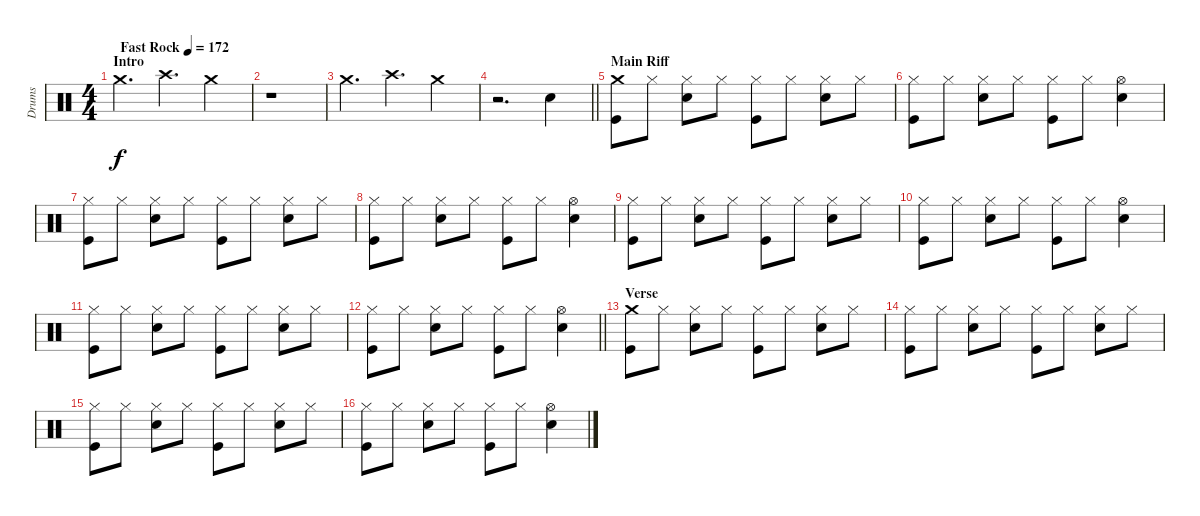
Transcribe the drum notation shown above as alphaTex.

\track ("Drums" "Drums") {instrument percussion}
\staff {score}
\articulation defaults
\ts (4 4)
\section ("" "Intro")
\tempo (172 "Fast Rock")
\clef neutral
\ks c "Crash medium (hit)".4{d dy f} "Crash high (hit)".4{d} "Crash medium (hit)".4
|
r.1 |
"Crash medium (hit)".4{d} "Crash high (hit)".4{d} "Crash medium (hit)".4 |
\barLineRight lightlight
r.2{d} "Snare (hit) 2".4 |
\section ("" "Main Riff")
("Crash medium (hit)" "Kick (hit)").8 "Hi-Hat (closed)".8 ("Hi-Hat (closed)" "Snare (hit) 2").8 "Hi-Hat (closed)".8 ("Hi-Hat (closed)" "Kick (hit)").8 "Hi-Hat (closed)".8 ("Hi-Hat (closed)" "Snare (hit) 2").8 "Hi-Hat (closed)".8 |
("Hi-Hat (closed)" "Kick (hit)").8 "Hi-Hat (closed)".8 ("Hi-Hat (closed)" "Snare (hit) 2").8 "Hi-Hat (closed)".8 ("Hi-Hat (closed)" "Kick (hit)").8 "Hi-Hat (closed)".8 ("Hi-Hat (open)" "Snare (hit) 2").4 |
("Hi-Hat (closed)" "Kick (hit)").8 "Hi-Hat (closed)".8 ("Hi-Hat (closed)" "Snare (hit) 2").8 "Hi-Hat (closed)".8 ("Hi-Hat (closed)" "Kick (hit)").8 "Hi-Hat (closed)".8 ("Hi-Hat (closed)" "Snare (hit) 2").8 "Hi-Hat (closed)".8 |
("Hi-Hat (closed)" "Kick (hit)").8 "Hi-Hat (closed)".8 ("Hi-Hat (closed)" "Snare (hit) 2").8 "Hi-Hat (closed)".8 ("Hi-Hat (closed)" "Kick (hit)").8 "Hi-Hat (closed)".8 ("Hi-Hat (open)" "Snare (hit) 2").4 |
("Hi-Hat (closed)" "Kick (hit)").8 "Hi-Hat (closed)".8 ("Hi-Hat (closed)" "Snare (hit) 2").8 "Hi-Hat (closed)".8 ("Hi-Hat (closed)" "Kick (hit)").8 "Hi-Hat (closed)".8 ("Hi-Hat (closed)" "Snare (hit) 2").8 "Hi-Hat (closed)".8 |
("Hi-Hat (closed)" "Kick (hit)").8 "Hi-Hat (closed)".8 ("Hi-Hat (closed)" "Snare (hit) 2").8 "Hi-Hat (closed)".8 ("Hi-Hat (closed)" "Kick (hit)").8 "Hi-Hat (closed)".8 ("Hi-Hat (open)" "Snare (hit) 2").4 |
("Hi-Hat (closed)" "Kick (hit)").8 "Hi-Hat (closed)".8 ("Hi-Hat (closed)" "Snare (hit) 2").8 "Hi-Hat (closed)".8 ("Hi-Hat (closed)" "Kick (hit)").8 "Hi-Hat (closed)".8 ("Hi-Hat (closed)" "Snare (hit) 2").8 "Hi-Hat (closed)".8 |
\barLineRight lightlight
("Hi-Hat (closed)" "Kick (hit)").8 "Hi-Hat (closed)".8 ("Hi-Hat (closed)" "Snare (hit) 2").8 "Hi-Hat (closed)".8 ("Hi-Hat (closed)" "Kick (hit)").8 "Hi-Hat (closed)".8 ("Hi-Hat (open)" "Snare (hit) 2").4 |
\section ("" "Verse")
("Crash medium (hit)" "Kick (hit)").8 "Hi-Hat (closed)".8 ("Hi-Hat (closed)" "Snare (hit) 2").8 "Hi-Hat (closed)".8 ("Hi-Hat (closed)" "Kick (hit)").8 "Hi-Hat (closed)".8 ("Hi-Hat (closed)" "Snare (hit) 2").8 "Hi-Hat (closed)".8 |
("Hi-Hat (closed)" "Kick (hit)").8 "Hi-Hat (closed)".8 ("Hi-Hat (closed)" "Snare (hit) 2").8 "Hi-Hat (closed)".8 ("Hi-Hat (closed)" "Kick (hit)").8 "Hi-Hat (closed)".8 ("Hi-Hat (closed)" "Snare (hit) 2").8 "Hi-Hat (closed)".8 |
("Hi-Hat (closed)" "Kick (hit)").8 "Hi-Hat (closed)".8 ("Hi-Hat (closed)" "Snare (hit) 2").8 "Hi-Hat (closed)".8 ("Hi-Hat (closed)" "Kick (hit)").8 "Hi-Hat (closed)".8 ("Hi-Hat (closed)" "Snare (hit) 2").8 "Hi-Hat (closed)".8 |
("Hi-Hat (closed)" "Kick (hit)").8 "Hi-Hat (closed)".8 ("Hi-Hat (closed)" "Snare (hit) 2").8 "Hi-Hat (closed)".8 ("Hi-Hat (closed)" "Kick (hit)").8 "Hi-Hat (closed)".8 ("Hi-Hat (open)" "Snare (hit) 2").4
